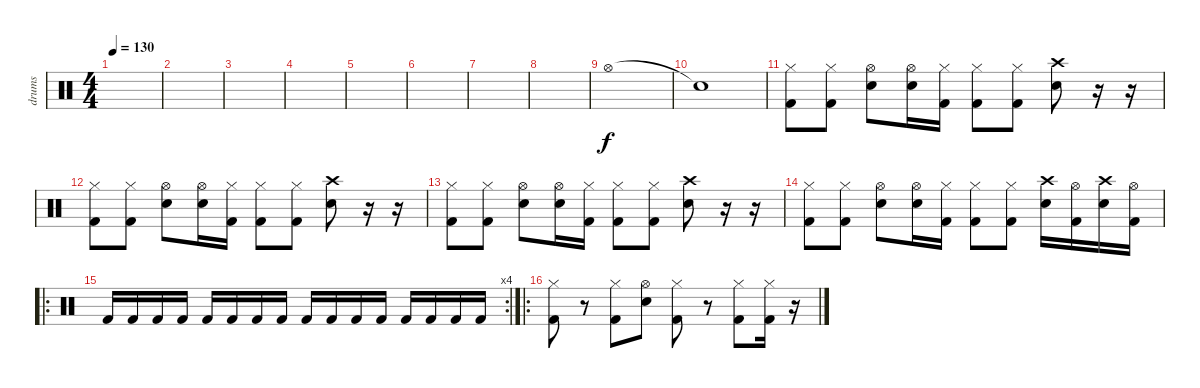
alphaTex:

\track ("drums" "drums") {instrument percussion}
\staff {score}
\articulation defaults
\ts (4 4)
\tempo 130
\clef neutral
\ks c
|
|
|
|
|
|
|
|
"Hi-Hat (open)".1 |
"Snare (hit)"{t}.1{dy f} |
("Hi-Hat (closed)" "Kick (hit) 2").8 ("Hi-Hat (closed)" "Kick (hit) 2").8 ("Hi-Hat (open)" "Snare (hit) 2").8 ("Hi-Hat (open)" "Snare (hit) 2").16 ("Hi-Hat (closed)" "Kick (hit) 2").16 ("Hi-Hat (closed)" "Kick (hit) 2").8 ("Hi-Hat (closed)" "Kick (hit) 2").8 ("Crash high (hit)" "Snare (hit) 2").8 r.16 r.16 |
("Hi-Hat (closed)" "Kick (hit) 2").8 ("Hi-Hat (closed)" "Kick (hit) 2").8 ("Hi-Hat (open)" "Snare (hit) 2").8 ("Hi-Hat (open)" "Snare (hit) 2").16 ("Hi-Hat (closed)" "Kick (hit) 2").16 ("Hi-Hat (closed)" "Kick (hit) 2").8 ("Hi-Hat (closed)" "Kick (hit) 2").8 ("Crash high (hit)" "Snare (hit) 2").8 r.16 r.16 |
("Hi-Hat (closed)" "Kick (hit) 2").8 ("Hi-Hat (closed)" "Kick (hit) 2").8 ("Hi-Hat (open)" "Snare (hit) 2").8 ("Hi-Hat (open)" "Snare (hit) 2").16 ("Hi-Hat (closed)" "Kick (hit) 2").16 ("Hi-Hat (closed)" "Kick (hit) 2").8 ("Hi-Hat (closed)" "Kick (hit) 2").8 ("Crash high (hit)" "Snare (hit) 2").8 r.16 r.16 |
("Hi-Hat (closed)" "Kick (hit) 2").8 ("Hi-Hat (closed)" "Kick (hit) 2").8 ("Hi-Hat (open)" "Snare (hit) 2").8 ("Hi-Hat (open)" "Snare (hit) 2").16 ("Hi-Hat (closed)" "Kick (hit) 2").16 ("Hi-Hat (closed)" "Kick (hit) 2").8 ("Hi-Hat (closed)" "Kick (hit) 2").8 ("Crash high (hit)" "Snare (hit) 2").16 ("Hi-Hat (open)" "Kick (hit) 2").16 ("Crash high (hit)" "Snare (hit) 2").16 ("Hi-Hat (open)" "Kick (hit) 2").16 |
\ro
\rc 4 "Kick (hit) 2".16 "Kick (hit) 2".16 "Kick (hit) 2".16 "Kick (hit) 2".16 "Kick (hit) 2".16 "Kick (hit) 2".16 "Kick (hit) 2".16 "Kick (hit) 2".16 "Kick (hit) 2".16 "Kick (hit) 2".16 "Kick (hit) 2".16 "Kick (hit) 2".16 "Kick (hit) 2".16 "Kick (hit) 2".16 "Kick (hit) 2".16 "Kick (hit) 2".16
|
\ro
("Hi-Hat (closed)" "Kick (hit) 2").8 r.8 ("Hi-Hat (closed)" "Kick (hit) 2").8 ("Hi-Hat (open)" "Snare (hit) 2").8 ("Hi-Hat (closed)" "Kick (hit) 2").8 r.8 ("Hi-Hat (closed)" "Kick (hit) 2").8 ("Hi-Hat (closed)" "Kick (hit) 2").16 r.16
